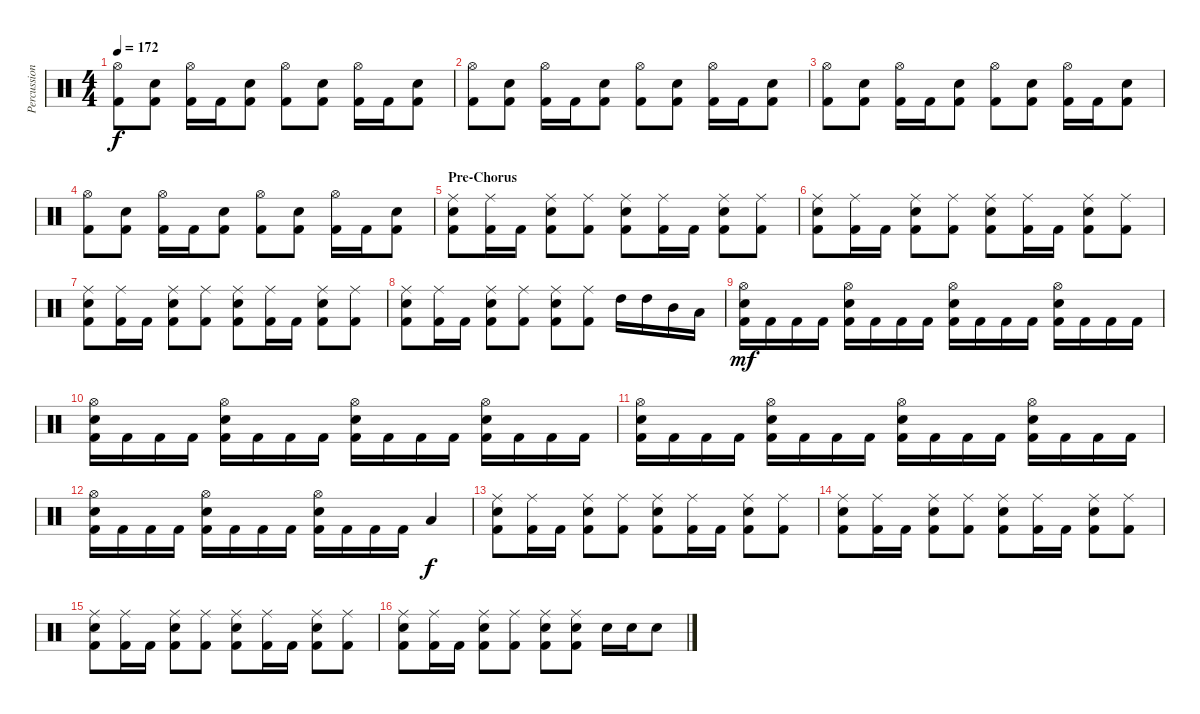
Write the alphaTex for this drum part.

\track ("Percussion" "Percussion") {instrument percussion}
\staff {score}
\articulation defaults
\ts (4 4)
\tempo 172
\clef neutral
\ks c
("Hi-Hat (open)" "Kick (hit) 2").8{dy f} ("Electric Snare (hit)" "Kick (hit) 2").8 ("Hi-Hat (open)" "Kick (hit) 2").16 "Kick (hit) 2".16 ("Electric Snare (hit)" "Kick (hit) 2").8 ("Hi-Hat (open)" "Kick (hit) 2").8 ("Electric Snare (hit)" "Kick (hit) 2").8 ("Hi-Hat (open)" "Kick (hit) 2").16 "Kick (hit) 2".16 ("Electric Snare (hit)" "Kick (hit) 2").8 |
("Hi-Hat (open)" "Kick (hit) 2").8 ("Electric Snare (hit)" "Kick (hit) 2").8 ("Hi-Hat (open)" "Kick (hit) 2").16 "Kick (hit) 2".16 ("Electric Snare (hit)" "Kick (hit) 2").8 ("Hi-Hat (open)" "Kick (hit) 2").8 ("Electric Snare (hit)" "Kick (hit) 2").8 ("Hi-Hat (open)" "Kick (hit) 2").16 "Kick (hit) 2".16 ("Electric Snare (hit)" "Kick (hit) 2").8 |
("Hi-Hat (open)" "Kick (hit) 2").8 ("Electric Snare (hit)" "Kick (hit) 2").8 ("Hi-Hat (open)" "Kick (hit) 2").16 "Kick (hit) 2".16 ("Electric Snare (hit)" "Kick (hit) 2").8 ("Hi-Hat (open)" "Kick (hit) 2").8 ("Electric Snare (hit)" "Kick (hit) 2").8 ("Hi-Hat (open)" "Kick (hit) 2").16 "Kick (hit) 2".16 ("Electric Snare (hit)" "Kick (hit) 2").8 |
("Hi-Hat (open)" "Kick (hit) 2").8 ("Electric Snare (hit)" "Kick (hit) 2").8 ("Hi-Hat (open)" "Kick (hit) 2").16 "Kick (hit) 2".16 ("Electric Snare (hit)" "Kick (hit) 2").8 ("Hi-Hat (open)" "Kick (hit) 2").8 ("Electric Snare (hit)" "Kick (hit) 2").8 ("Hi-Hat (open)" "Kick (hit) 2").16 "Kick (hit) 2".16 ("Electric Snare (hit)" "Kick (hit) 2").8 |
\section ("" "Pre-Chorus")
("Ride (middle)" "Electric Snare (hit)" "Kick (hit) 2").8 ("Ride (middle)" "Kick (hit) 2").16 "Kick (hit) 2".16 ("Ride (middle)" "Electric Snare (hit)" "Kick (hit) 2").8 ("Ride (middle)" "Kick (hit) 2").8 ("Ride (middle)" "Electric Snare (hit)" "Kick (hit) 2").8 ("Ride (middle)" "Kick (hit) 2").16 "Kick (hit) 2".16 ("Ride (middle)" "Electric Snare (hit)" "Kick (hit) 2").8 ("Ride (middle)" "Kick (hit) 2").8 |
("Ride (middle)" "Electric Snare (hit)" "Kick (hit) 2").8 ("Ride (middle)" "Kick (hit) 2").16 "Kick (hit) 2".16 ("Ride (middle)" "Electric Snare (hit)" "Kick (hit) 2").8 ("Ride (middle)" "Kick (hit) 2").8 ("Ride (middle)" "Electric Snare (hit)" "Kick (hit) 2").8 ("Ride (middle)" "Kick (hit) 2").16 "Kick (hit) 2".16 ("Ride (middle)" "Electric Snare (hit)" "Kick (hit) 2").8 ("Ride (middle)" "Kick (hit) 2").8 |
("Ride (middle)" "Electric Snare (hit)" "Kick (hit) 2").8 ("Ride (middle)" "Kick (hit) 2").16 "Kick (hit) 2".16 ("Ride (middle)" "Electric Snare (hit)" "Kick (hit) 2").8 ("Ride (middle)" "Kick (hit) 2").8 ("Ride (middle)" "Electric Snare (hit)" "Kick (hit) 2").8 ("Ride (middle)" "Kick (hit) 2").16 "Kick (hit) 2".16 ("Ride (middle)" "Electric Snare (hit)" "Kick (hit) 2").8 ("Ride (middle)" "Kick (hit) 2").8 |
("Ride (middle)" "Electric Snare (hit)" "Kick (hit) 2").8 ("Ride (middle)" "Kick (hit) 2").16 "Kick (hit) 2".16 ("Ride (middle)" "Electric Snare (hit)" "Kick (hit) 2").8 ("Ride (middle)" "Kick (hit) 2").8 ("Ride (middle)" "Electric Snare (hit)" "Kick (hit) 2").8 ("Ride (middle)" "Kick (hit) 2").8 "High Tom (hit)".16 "High Tom (hit)".16 "Mid Tom (hit)".16 "Low Tom (hit)".16 |
("Hi-Hat (open)" "Electric Snare (hit)" "Kick (hit) 2").16{dy mf} "Kick (hit) 2".16 "Kick (hit) 2".16 "Kick (hit) 2".16 ("Hi-Hat (open)" "Electric Snare (hit)" "Kick (hit) 2").16 "Kick (hit) 2".16 "Kick (hit) 2".16 "Kick (hit) 2".16 ("Hi-Hat (open)" "Electric Snare (hit)" "Kick (hit) 2").16 "Kick (hit) 2".16 "Kick (hit) 2".16 "Kick (hit) 2".16 ("Hi-Hat (open)" "Electric Snare (hit)" "Kick (hit) 2").16 "Kick (hit) 2".16 "Kick (hit) 2".16 "Kick (hit) 2".16 |
("Hi-Hat (open)" "Electric Snare (hit)" "Kick (hit) 2").16 "Kick (hit) 2".16 "Kick (hit) 2".16 "Kick (hit) 2".16 ("Hi-Hat (open)" "Electric Snare (hit)" "Kick (hit) 2").16 "Kick (hit) 2".16 "Kick (hit) 2".16 "Kick (hit) 2".16 ("Hi-Hat (open)" "Electric Snare (hit)" "Kick (hit) 2").16 "Kick (hit) 2".16 "Kick (hit) 2".16 "Kick (hit) 2".16 ("Hi-Hat (open)" "Electric Snare (hit)" "Kick (hit) 2").16 "Kick (hit) 2".16 "Kick (hit) 2".16 "Kick (hit) 2".16 |
("Hi-Hat (open)" "Electric Snare (hit)" "Kick (hit) 2").16 "Kick (hit) 2".16 "Kick (hit) 2".16 "Kick (hit) 2".16 ("Hi-Hat (open)" "Electric Snare (hit)" "Kick (hit) 2").16 "Kick (hit) 2".16 "Kick (hit) 2".16 "Kick (hit) 2".16 ("Hi-Hat (open)" "Electric Snare (hit)" "Kick (hit) 2").16 "Kick (hit) 2".16 "Kick (hit) 2".16 "Kick (hit) 2".16 ("Hi-Hat (open)" "Electric Snare (hit)" "Kick (hit) 2").16 "Kick (hit) 2".16 "Kick (hit) 2".16 "Kick (hit) 2".16 |
("Hi-Hat (open)" "Electric Snare (hit)" "Kick (hit) 2").16 "Kick (hit) 2".16 "Kick (hit) 2".16 "Kick (hit) 2".16 ("Hi-Hat (open)" "Electric Snare (hit)" "Kick (hit) 2").16 "Kick (hit) 2".16 "Kick (hit) 2".16 "Kick (hit) 2".16 ("Hi-Hat (open)" "Electric Snare (hit)" "Kick (hit) 2").16 "Kick (hit) 2".16 "Kick (hit) 2".16 "Kick (hit) 2".16 "Low Tom (hit)".4{dy f} |
("Ride (middle)" "Electric Snare (hit)" "Kick (hit) 2").8 ("Ride (middle)" "Kick (hit) 2").16 "Kick (hit) 2".16 ("Ride (middle)" "Electric Snare (hit)" "Kick (hit) 2").8 ("Ride (middle)" "Kick (hit) 2").8 ("Ride (middle)" "Electric Snare (hit)" "Kick (hit) 2").8 ("Ride (middle)" "Kick (hit) 2").16 "Kick (hit) 2".16 ("Ride (middle)" "Electric Snare (hit)" "Kick (hit) 2").8 ("Ride (middle)" "Kick (hit) 2").8 |
("Ride (middle)" "Electric Snare (hit)" "Kick (hit) 2").8 ("Ride (middle)" "Kick (hit) 2").16 "Kick (hit) 2".16 ("Ride (middle)" "Electric Snare (hit)" "Kick (hit) 2").8 ("Ride (middle)" "Kick (hit) 2").8 ("Ride (middle)" "Electric Snare (hit)" "Kick (hit) 2").8 ("Ride (middle)" "Kick (hit) 2").16 "Kick (hit) 2".16 ("Ride (middle)" "Electric Snare (hit)" "Kick (hit) 2").8 ("Ride (middle)" "Kick (hit) 2").8 |
("Ride (middle)" "Electric Snare (hit)" "Kick (hit) 2").8 ("Ride (middle)" "Kick (hit) 2").16 "Kick (hit) 2".16 ("Ride (middle)" "Electric Snare (hit)" "Kick (hit) 2").8 ("Ride (middle)" "Kick (hit) 2").8 ("Ride (middle)" "Electric Snare (hit)" "Kick (hit) 2").8 ("Ride (middle)" "Kick (hit) 2").16 "Kick (hit) 2".16 ("Ride (middle)" "Electric Snare (hit)" "Kick (hit) 2").8 ("Ride (middle)" "Kick (hit) 2").8 |
("Ride (middle)" "Electric Snare (hit)" "Kick (hit) 2").8 ("Ride (middle)" "Kick (hit) 2").16 "Kick (hit) 2".16 ("Ride (middle)" "Electric Snare (hit)" "Kick (hit) 2").8 ("Ride (middle)" "Kick (hit) 2").8 ("Ride (middle)" "Electric Snare (hit)" "Kick (hit) 2").8 ("Ride (middle)" "Electric Snare (hit)" "Kick (hit) 2").8 "Electric Snare (hit)".16 "Electric Snare (hit)".16 "Electric Snare (hit)".8
